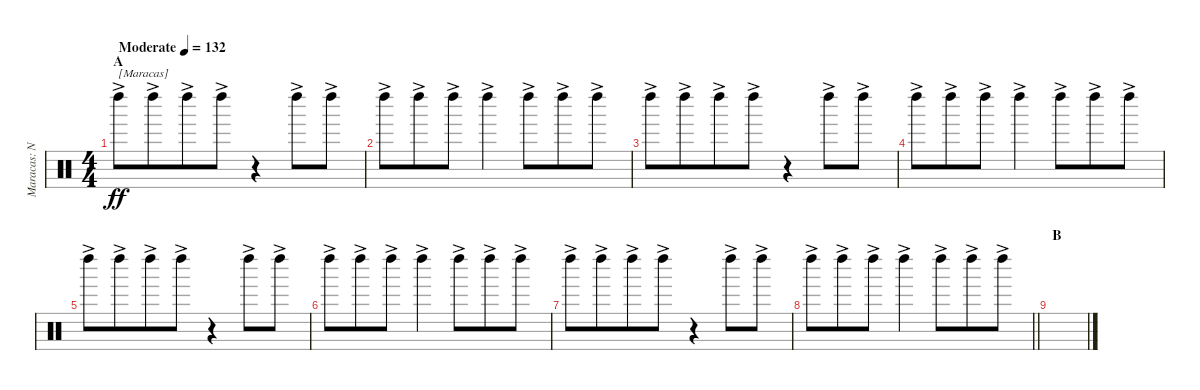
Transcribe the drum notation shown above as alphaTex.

\track ("Maracas: Nigel Ollson" "Maracas: N") {instrument percussion}
\staff {score}
\articulation defaults
\ts (4 4)
\section ("" "A")
\tempo (132 "Moderate")
\clef neutral
\ks c "Left Maraca (hit)"{ac}.8{txt "[Maracas]" dy ff} "Left Maraca (hit)"{ac}.8{beam merge} "Left Maraca (hit)"{ac}.8 "Left Maraca (hit)"{ac}.8
r.4 "Left Maraca (hit)"{ac}.8 "Left Maraca (hit)"{ac}.8 |
"Left Maraca (hit)"{ac}.8 "Left Maraca (hit)"{ac}.8{beam merge} "Left Maraca (hit)"{ac}.8 "Left Maraca (hit)"{ac}.4 "Left Maraca (hit)"{ac}.8{beam merge} "Left Maraca (hit)"{ac}.8 "Left Maraca (hit)"{ac}.8 |
"Left Maraca (hit)"{ac}.8 "Left Maraca (hit)"{ac}.8{beam merge} "Left Maraca (hit)"{ac}.8 "Left Maraca (hit)"{ac}.8 r.4 "Left Maraca (hit)"{ac}.8 "Left Maraca (hit)"{ac}.8 |
"Left Maraca (hit)"{ac}.8 "Left Maraca (hit)"{ac}.8{beam merge} "Left Maraca (hit)"{ac}.8 "Left Maraca (hit)"{ac}.4 "Left Maraca (hit)"{ac}.8{beam merge} "Left Maraca (hit)"{ac}.8 "Left Maraca (hit)"{ac}.8 |
"Left Maraca (hit)"{ac}.8 "Left Maraca (hit)"{ac}.8{beam merge} "Left Maraca (hit)"{ac}.8 "Left Maraca (hit)"{ac}.8 r.4 "Left Maraca (hit)"{ac}.8 "Left Maraca (hit)"{ac}.8 |
"Left Maraca (hit)"{ac}.8 "Left Maraca (hit)"{ac}.8{beam merge} "Left Maraca (hit)"{ac}.8 "Left Maraca (hit)"{ac}.4 "Left Maraca (hit)"{ac}.8{beam merge} "Left Maraca (hit)"{ac}.8 "Left Maraca (hit)"{ac}.8 |
"Left Maraca (hit)"{ac}.8 "Left Maraca (hit)"{ac}.8{beam merge} "Left Maraca (hit)"{ac}.8 "Left Maraca (hit)"{ac}.8 r.4 "Left Maraca (hit)"{ac}.8 "Left Maraca (hit)"{ac}.8 |
\barLineRight lightlight "Left Maraca (hit)"{ac}.8 "Left Maraca (hit)"{ac}.8{beam merge} "Left Maraca (hit)"{ac}.8 "Left Maraca (hit)"{ac}.4 "Left Maraca (hit)"{ac}.8{beam merge} "Left Maraca (hit)"{ac}.8 "Left Maraca (hit)"{ac}.8
|
\section ("" "B")
